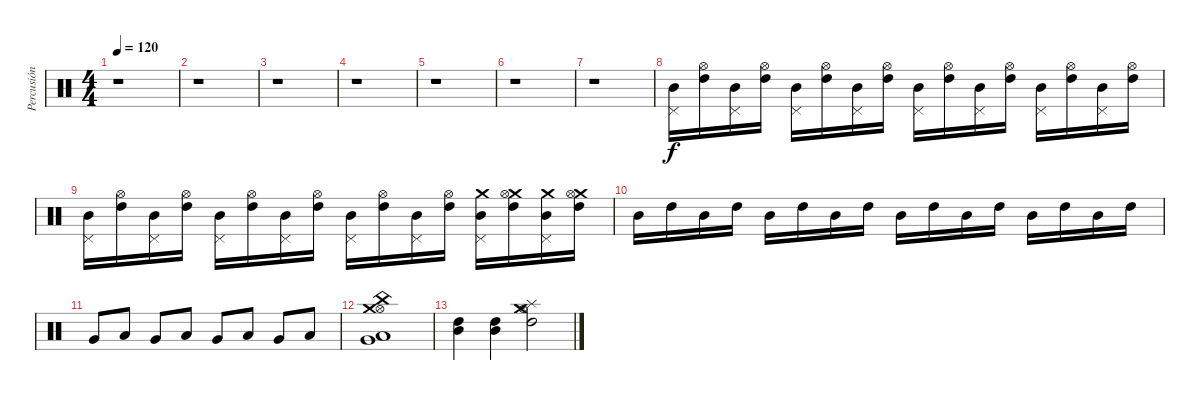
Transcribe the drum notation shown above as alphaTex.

\track ("Percusión" "Percusión") {instrument percussion}
\staff {score}
\articulation defaults
\ts (4 4)
\tempo 120
\clef neutral
\ks c
r.1{dy f} |
r.1 |
r.1 |
r.1 |
r.1 |
r.1 |
r.1 |
("Pedal Hi-Hat (hit)" "Mid Tom (hit)").16 ("Hi-Hat (open)" "High Tom (hit)").16 ("Pedal Hi-Hat (hit)" "Mid Tom (hit)").16 ("Hi-Hat (open)" "High Tom (hit)").16 ("Pedal Hi-Hat (hit)" "Mid Tom (hit)").16 ("Hi-Hat (open)" "High Tom (hit)").16 ("Pedal Hi-Hat (hit)" "Mid Tom (hit)").16 ("Hi-Hat (open)" "High Tom (hit)").16 ("Pedal Hi-Hat (hit)" "Mid Tom (hit)").16 ("Hi-Hat (open)" "High Tom (hit)").16 ("Pedal Hi-Hat (hit)" "Mid Tom (hit)").16 ("Hi-Hat (open)" "High Tom (hit)").16 ("Pedal Hi-Hat (hit)" "Mid Tom (hit)").16 ("Hi-Hat (open)" "High Tom (hit)").16 ("Pedal Hi-Hat (hit)" "Mid Tom (hit)").16 ("Hi-Hat (open)" "High Tom (hit)").16 |
("Pedal Hi-Hat (hit)" "Mid Tom (hit)").16 ("Hi-Hat (open)" "High Tom (hit)").16 ("Pedal Hi-Hat (hit)" "Mid Tom (hit)").16 ("Hi-Hat (open)" "High Tom (hit)").16 ("Pedal Hi-Hat (hit)" "Mid Tom (hit)").16 ("Hi-Hat (open)" "High Tom (hit)").16 ("Pedal Hi-Hat (hit)" "Mid Tom (hit)").16 ("Hi-Hat (open)" "High Tom (hit)").16 ("Pedal Hi-Hat (hit)" "Mid Tom (hit)").16 ("Hi-Hat (open)" "High Tom (hit)").16 ("Pedal Hi-Hat (hit)" "Mid Tom (hit)").16 ("Hi-Hat (open)" "High Tom (hit)").16 ("Crash medium (hit)" "Pedal Hi-Hat (hit)" "Mid Tom (hit)").16 ("Crash medium (hit)" "Hi-Hat (open)" "High Tom (hit)").16 ("Crash medium (hit)" "Pedal Hi-Hat (hit)" "Mid Tom (hit)").16 ("Crash medium (hit)" "Hi-Hat (open)" "High Tom (hit)").16 |
"Mid Tom (hit)".16 "High Tom (hit)".16 "Mid Tom (hit)".16 "High Tom (hit)".16 "Mid Tom (hit)".16 "High Tom (hit)".16 "Mid Tom (hit)".16 "High Tom (hit)".16 "Mid Tom (hit)".16 "High Tom (hit)".16 "Mid Tom (hit)".16 "High Tom (hit)".16 "Mid Tom (hit)".16 "High Tom (hit)".16 "Mid Tom (hit)".16 "High Tom (hit)".16 |
"Very Low Tom (hit)".8 "Low Floor Tom (hit)".8 "Very Low Tom (hit)".8 "Low Floor Tom (hit)".8 "Very Low Tom (hit)".8 "Low Floor Tom (hit)".8 "Very Low Tom (hit)".8 "Low Floor Tom (hit)".8 |
("Low Floor Tom (hit)" "China (hit)" "Hi-Hat (open)" "Crash medium (hit)" "Very Low Tom (hit)").1 |
("Mid Tom (hit)" "High Tom (hit)").4 ("Mid Tom (hit)" "High Tom (hit)").4 ("Splash (hit)" "Crash medium (hit)" "Hi-Hat (open)" "High Tom (hit)").2
